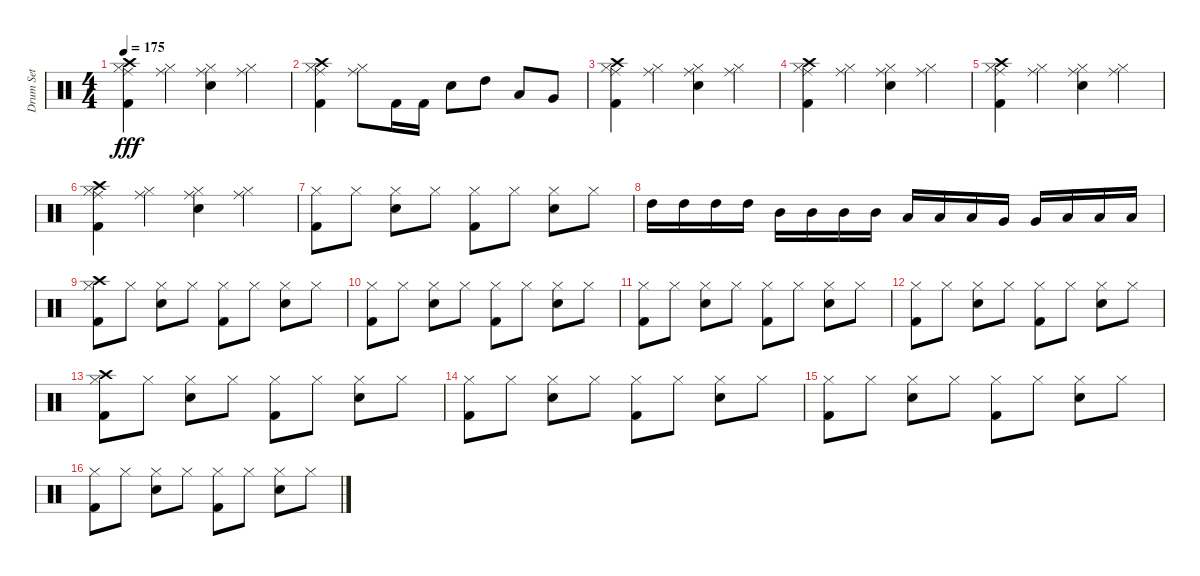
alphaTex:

\track ("Drum Set" "Drum Set") {instrument percussion}
\staff {score}
\articulation defaults
\ts (4 4)
\tempo 175
\clef neutral
\ks c
("Kick (hit) 2" "Hi-Hat (closed)" "Crash high (hit)" "Ride (middle)").4{dy fff} ("Ride (middle)" "Hi-Hat (closed)").4 ("Electric Snare (hit)" "Ride (middle)" "Hi-Hat (closed)").4 ("Ride (middle)" "Hi-Hat (closed)").4 |
("Kick (hit) 2" "Hi-Hat (closed)" "Ride (middle)" "Crash high (hit)").4 ("Ride (middle)" "Hi-Hat (closed)").8 "Kick (hit) 2".16 "Kick (hit) 2".16 "Electric Snare (hit)".8 "High Tom (hit)".8 "Low Tom (hit)".8 "Very Low Tom (hit)".8 |
("Kick (hit) 2" "Ride (middle)" "Hi-Hat (closed)" "Crash high (hit)").4 ("Hi-Hat (closed)" "Ride (middle)").4 ("Electric Snare (hit)" "Hi-Hat (closed)" "Ride (middle)").4 ("Ride (middle)" "Hi-Hat (closed)").4 |
("Kick (hit) 2" "Ride (middle)" "Hi-Hat (closed)" "Crash high (hit)").4 ("Ride (middle)" "Hi-Hat (closed)").4 ("Electric Snare (hit)" "Hi-Hat (closed)" "Ride (middle)").4 ("Hi-Hat (closed)" "Ride (middle)").4 |
("Kick (hit) 2" "Crash high (hit)" "Ride (middle)" "Hi-Hat (closed)").4 ("Ride (middle)" "Hi-Hat (closed)").4 ("Electric Snare (hit)" "Hi-Hat (closed)" "Ride (middle)").4 ("Ride (middle)" "Hi-Hat (closed)").4 |
("Kick (hit) 2" "Hi-Hat (closed)" "Crash high (hit)" "Ride (middle)").4 ("Hi-Hat (closed)" "Ride (middle)").4 ("Electric Snare (hit)" "Ride (middle)" "Hi-Hat (closed)").4 ("Ride (middle)" "Hi-Hat (closed)").4 |
("Kick (hit) 2" "Hi-Hat (closed)").8 "Hi-Hat (closed)".8 ("Electric Snare (hit)" "Hi-Hat (closed)").8 "Hi-Hat (closed)".8 ("Kick (hit) 2" "Hi-Hat (closed)").8 "Hi-Hat (closed)".8 ("Electric Snare (hit)" "Hi-Hat (closed)").8 "Hi-Hat (closed)".8 |
"High Tom (hit)".16 "High Tom (hit)".16 "High Tom (hit)".16 "High Tom (hit)".16 "Mid Tom (hit)".16 "Mid Tom (hit)".16 "Mid Tom (hit)".16 "Mid Tom (hit)".16 "Low Tom (hit)".16 "Low Tom (hit)".16 "Low Tom (hit)".16 "Very Low Tom (hit)".16 "Very Low Tom (hit)".16 "Low Floor Tom (hit)".16 "Low Floor Tom (hit)".16 "Low Floor Tom (hit)".16 |
("Kick (hit) 2" "Crash high (hit)" "Hi-Hat (closed)").8 "Hi-Hat (closed)".8 ("Electric Snare (hit)" "Hi-Hat (closed)").8 "Hi-Hat (closed)".8 ("Kick (hit) 2" "Hi-Hat (closed)").8 "Hi-Hat (closed)".8 ("Electric Snare (hit)" "Hi-Hat (closed)").8 "Hi-Hat (closed)".8 |
("Kick (hit) 2" "Hi-Hat (closed)").8 "Hi-Hat (closed)".8 ("Electric Snare (hit)" "Hi-Hat (closed)").8 "Hi-Hat (closed)".8 ("Kick (hit) 2" "Hi-Hat (closed)").8 "Hi-Hat (closed)".8 ("Electric Snare (hit)" "Hi-Hat (closed)").8 "Hi-Hat (closed)".8 |
("Kick (hit) 2" "Hi-Hat (closed)").8 "Hi-Hat (closed)".8 ("Electric Snare (hit)" "Hi-Hat (closed)").8 "Hi-Hat (closed)".8 ("Kick (hit) 2" "Hi-Hat (closed)").8 "Hi-Hat (closed)".8 ("Electric Snare (hit)" "Hi-Hat (closed)").8 "Hi-Hat (closed)".8 |
("Kick (hit) 2" "Hi-Hat (closed)").8 "Hi-Hat (closed)".8 ("Electric Snare (hit)" "Hi-Hat (closed)").8 "Hi-Hat (closed)".8 ("Kick (hit) 2" "Hi-Hat (closed)").8 "Hi-Hat (closed)".8 ("Electric Snare (hit)" "Hi-Hat (closed)").8 "Hi-Hat (closed)".8 |
("Kick (hit) 2" "Crash high (hit)" "Hi-Hat (closed)").8 "Hi-Hat (closed)".8 ("Electric Snare (hit)" "Hi-Hat (closed)").8 "Hi-Hat (closed)".8 ("Kick (hit) 2" "Hi-Hat (closed)").8 "Hi-Hat (closed)".8 ("Electric Snare (hit)" "Hi-Hat (closed)").8 "Hi-Hat (closed)".8 |
("Kick (hit) 2" "Hi-Hat (closed)").8 "Hi-Hat (closed)".8 ("Electric Snare (hit)" "Hi-Hat (closed)").8 "Hi-Hat (closed)".8 ("Kick (hit) 2" "Hi-Hat (closed)").8 "Hi-Hat (closed)".8 ("Electric Snare (hit)" "Hi-Hat (closed)").8 "Hi-Hat (closed)".8 |
("Kick (hit) 2" "Hi-Hat (closed)").8 "Hi-Hat (closed)".8 ("Electric Snare (hit)" "Hi-Hat (closed)").8 "Hi-Hat (closed)".8 ("Kick (hit) 2" "Hi-Hat (closed)").8 "Hi-Hat (closed)".8 ("Electric Snare (hit)" "Hi-Hat (closed)").8 "Hi-Hat (closed)".8 |
("Kick (hit) 2" "Hi-Hat (closed)").8 "Hi-Hat (closed)".8 ("Electric Snare (hit)" "Hi-Hat (closed)").8 "Hi-Hat (closed)".8 ("Kick (hit) 2" "Hi-Hat (closed)").8 "Hi-Hat (closed)".8 ("Electric Snare (hit)" "Hi-Hat (closed)").8 "Hi-Hat (closed)".8
